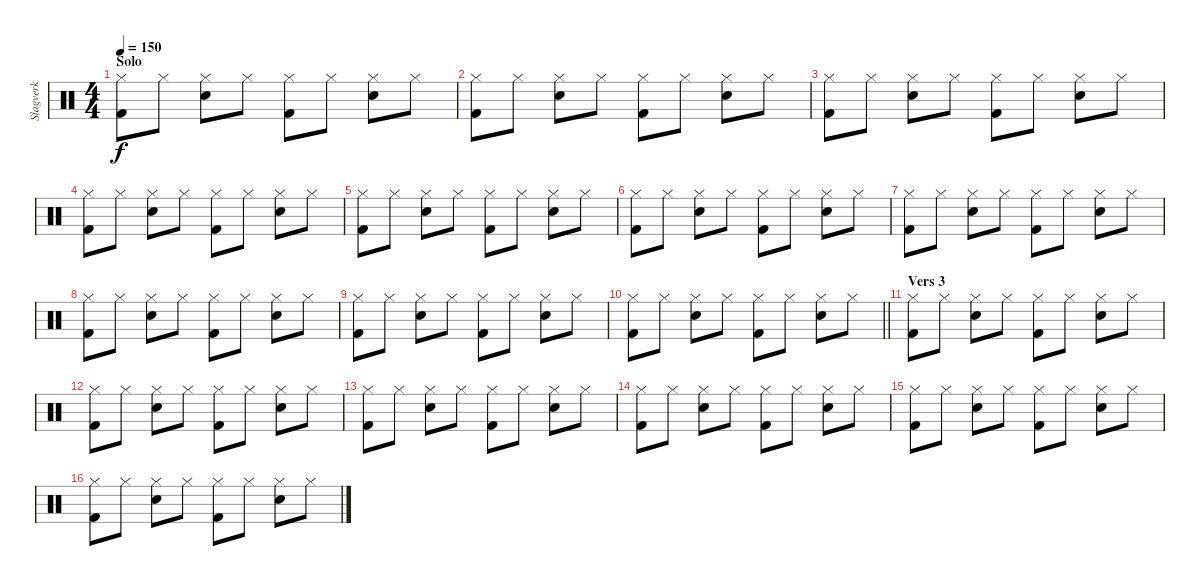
\track ("Slagverk" "Slagverk") {instrument percussion}
\staff {score}
\articulation defaults
\ts (4 4)
\section ("" "Solo")
\tempo 150
\clef neutral
\ks c
("Kick (hit) 2" "Hi-Hat (closed)").8{dy f} "Hi-Hat (closed)".8 ("Snare (hit) 2" "Hi-Hat (closed)").8 "Hi-Hat (closed)".8 ("Kick (hit) 2" "Hi-Hat (closed)").8 "Hi-Hat (closed)".8 ("Snare (hit) 2" "Hi-Hat (closed)").8 "Hi-Hat (closed)".8 |
("Kick (hit) 2" "Hi-Hat (closed)").8 "Hi-Hat (closed)".8 ("Snare (hit) 2" "Hi-Hat (closed)").8 "Hi-Hat (closed)".8 ("Kick (hit) 2" "Hi-Hat (closed)").8 "Hi-Hat (closed)".8 ("Snare (hit) 2" "Hi-Hat (closed)").8 "Hi-Hat (closed)".8 |
("Kick (hit) 2" "Hi-Hat (closed)").8 "Hi-Hat (closed)".8 ("Snare (hit) 2" "Hi-Hat (closed)").8 "Hi-Hat (closed)".8 ("Kick (hit) 2" "Hi-Hat (closed)").8 "Hi-Hat (closed)".8 ("Snare (hit) 2" "Hi-Hat (closed)").8 "Hi-Hat (closed)".8 |
("Kick (hit) 2" "Hi-Hat (closed)").8 "Hi-Hat (closed)".8 ("Snare (hit) 2" "Hi-Hat (closed)").8 "Hi-Hat (closed)".8 ("Kick (hit) 2" "Hi-Hat (closed)").8 "Hi-Hat (closed)".8 ("Snare (hit) 2" "Hi-Hat (closed)").8 "Hi-Hat (closed)".8 |
("Kick (hit) 2" "Hi-Hat (closed)").8 "Hi-Hat (closed)".8 ("Snare (hit) 2" "Hi-Hat (closed)").8 "Hi-Hat (closed)".8 ("Kick (hit) 2" "Hi-Hat (closed)").8 "Hi-Hat (closed)".8 ("Snare (hit) 2" "Hi-Hat (closed)").8 "Hi-Hat (closed)".8 |
("Kick (hit) 2" "Hi-Hat (closed)").8 "Hi-Hat (closed)".8 ("Snare (hit) 2" "Hi-Hat (closed)").8 "Hi-Hat (closed)".8 ("Kick (hit) 2" "Hi-Hat (closed)").8 "Hi-Hat (closed)".8 ("Snare (hit) 2" "Hi-Hat (closed)").8 "Hi-Hat (closed)".8 |
("Kick (hit) 2" "Hi-Hat (closed)").8 "Hi-Hat (closed)".8 ("Snare (hit) 2" "Hi-Hat (closed)").8 "Hi-Hat (closed)".8 ("Kick (hit) 2" "Hi-Hat (closed)").8 "Hi-Hat (closed)".8 ("Snare (hit) 2" "Hi-Hat (closed)").8 "Hi-Hat (closed)".8 |
("Kick (hit) 2" "Hi-Hat (closed)").8 "Hi-Hat (closed)".8 ("Snare (hit) 2" "Hi-Hat (closed)").8 "Hi-Hat (closed)".8 ("Kick (hit) 2" "Hi-Hat (closed)").8 "Hi-Hat (closed)".8 ("Snare (hit) 2" "Hi-Hat (closed)").8 "Hi-Hat (closed)".8 |
("Kick (hit) 2" "Hi-Hat (closed)").8 "Hi-Hat (closed)".8 ("Snare (hit) 2" "Hi-Hat (closed)").8 "Hi-Hat (closed)".8 ("Kick (hit) 2" "Hi-Hat (closed)").8 "Hi-Hat (closed)".8 ("Snare (hit) 2" "Hi-Hat (closed)").8 "Hi-Hat (closed)".8 |
\barLineRight lightlight
("Kick (hit) 2" "Hi-Hat (closed)").8 "Hi-Hat (closed)".8 ("Snare (hit) 2" "Hi-Hat (closed)").8 "Hi-Hat (closed)".8 ("Kick (hit) 2" "Hi-Hat (closed)").8 "Hi-Hat (closed)".8 ("Snare (hit) 2" "Hi-Hat (closed)").8 "Hi-Hat (closed)".8 |
\section ("" "Vers 3")
("Kick (hit) 2" "Hi-Hat (closed)").8 "Hi-Hat (closed)".8 ("Snare (hit) 2" "Hi-Hat (closed)").8 "Hi-Hat (closed)".8 ("Kick (hit) 2" "Hi-Hat (closed)").8 "Hi-Hat (closed)".8 ("Snare (hit) 2" "Hi-Hat (closed)").8 "Hi-Hat (closed)".8 |
("Kick (hit) 2" "Hi-Hat (closed)").8 "Hi-Hat (closed)".8 ("Snare (hit) 2" "Hi-Hat (closed)").8 "Hi-Hat (closed)".8 ("Kick (hit) 2" "Hi-Hat (closed)").8 "Hi-Hat (closed)".8 ("Snare (hit) 2" "Hi-Hat (closed)").8 "Hi-Hat (closed)".8 |
("Kick (hit) 2" "Hi-Hat (closed)").8 "Hi-Hat (closed)".8 ("Snare (hit) 2" "Hi-Hat (closed)").8 "Hi-Hat (closed)".8 ("Kick (hit) 2" "Hi-Hat (closed)").8 "Hi-Hat (closed)".8 ("Snare (hit) 2" "Hi-Hat (closed)").8 "Hi-Hat (closed)".8 |
("Kick (hit) 2" "Hi-Hat (closed)").8 "Hi-Hat (closed)".8 ("Snare (hit) 2" "Hi-Hat (closed)").8 "Hi-Hat (closed)".8 ("Kick (hit) 2" "Hi-Hat (closed)").8 "Hi-Hat (closed)".8 ("Snare (hit) 2" "Hi-Hat (closed)").8 "Hi-Hat (closed)".8 |
("Kick (hit) 2" "Hi-Hat (closed)").8 "Hi-Hat (closed)".8 ("Snare (hit) 2" "Hi-Hat (closed)").8 "Hi-Hat (closed)".8 ("Kick (hit) 2" "Hi-Hat (closed)").8 "Hi-Hat (closed)".8 ("Snare (hit) 2" "Hi-Hat (closed)").8 "Hi-Hat (closed)".8 |
("Kick (hit) 2" "Hi-Hat (closed)").8 "Hi-Hat (closed)".8 ("Snare (hit) 2" "Hi-Hat (closed)").8 "Hi-Hat (closed)".8 ("Kick (hit) 2" "Hi-Hat (closed)").8 "Hi-Hat (closed)".8 ("Snare (hit) 2" "Hi-Hat (closed)").8 "Hi-Hat (closed)".8
